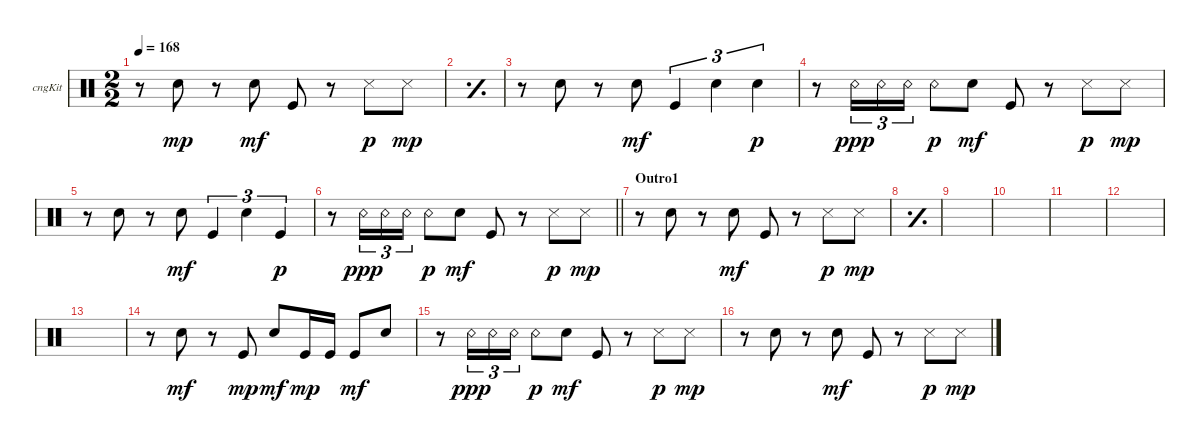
\bracketExtendMode groupsimilarinstruments
\multiTrackTrackNamePolicy hidden
\firstSystemTrackNameOrientation horizontal
\otherSystemsTrackNameOrientation horizontal
\track ("Congas" "cngKit") {instrument percussion}
\staff {score}
\articulation defaults
\ts (2 2)
\tempo 168
\clef neutral
\ks c
r.8{dy mp} "Snare (hit) 2".8 r.8 "Snare (hit) 2".8{dy mf} "Kick (hit)".8 r.8 "Snare (side stick) 3".8{dy p} "Snare (side stick) 3".8{dy mp} |
\simile simple
|
\simile none
r.8 "Snare (hit) 2".8 r.8 "Snare (hit) 2".8{dy mf} "Kick (hit)".4{tu (3 2)} "Snare (hit) 2".4{tu (3 2)} "Snare (hit) 2".4{tu (3 2) dy p} |
r.8 "Snare (rim shot)".16{tu (3 2) dy ppp} "Snare (rim shot)".16{tu (3 2)} "Snare (rim shot)".16{tu (3 2)} "Snare (rim shot)".8{dy p} "Snare (hit) 2".8{dy mf} "Kick (hit)".8 r.8 "Snare (side stick) 3".8{dy p} "Snare (side stick) 3".8{dy mp} |
r.8 "Snare (hit) 2".8 r.8 "Snare (hit) 2".8{dy mf} "Kick (hit)".4{tu (3 2)} "Snare (hit) 2".4{tu (3 2)} "Kick (hit)".4{tu (3 2) dy p} |
\barLineRight lightlight
r.8 "Snare (rim shot)".16{tu (3 2) dy ppp} "Snare (rim shot)".16{tu (3 2)} "Snare (rim shot)".16{tu (3 2)} "Snare (rim shot)".8{dy p} "Snare (hit) 2".8{dy mf} "Kick (hit)".8 r.8 "Snare (side stick) 3".8{dy p} "Snare (side stick) 3".8{dy mp} |
\section ("" "Outro1")
r.8 "Snare (hit) 2".8 r.8 "Snare (hit) 2".8{dy mf} "Kick (hit)".8 r.8 "Snare (side stick) 3".8{dy p} "Snare (side stick) 3".8{dy mp} |
\simile simple
|
|
|
|
|
|
\simile none
r.8 "Snare (hit) 2".8{dy mf} r.8 "Kick (hit)".8{dy mp} "Snare (hit) 2".8{dy mf} "Kick (hit)".16{dy mp} "Kick (hit)".16 "Kick (hit)".8{dy mf} "Snare (hit) 2".8 |
r.8 "Snare (rim shot)".16{tu (3 2) dy ppp} "Snare (rim shot)".16{tu (3 2)} "Snare (rim shot)".16{tu (3 2)} "Snare (rim shot)".8{dy p} "Snare (hit) 2".8{dy mf} "Kick (hit)".8 r.8 "Snare (side stick) 3".8{dy p} "Snare (side stick) 3".8{dy mp} |
r.8 "Snare (hit) 2".8 r.8 "Snare (hit) 2".8{dy mf} "Kick (hit)".8 r.8 "Snare (side stick) 3".8{dy p} "Snare (side stick) 3".8{dy mp}
